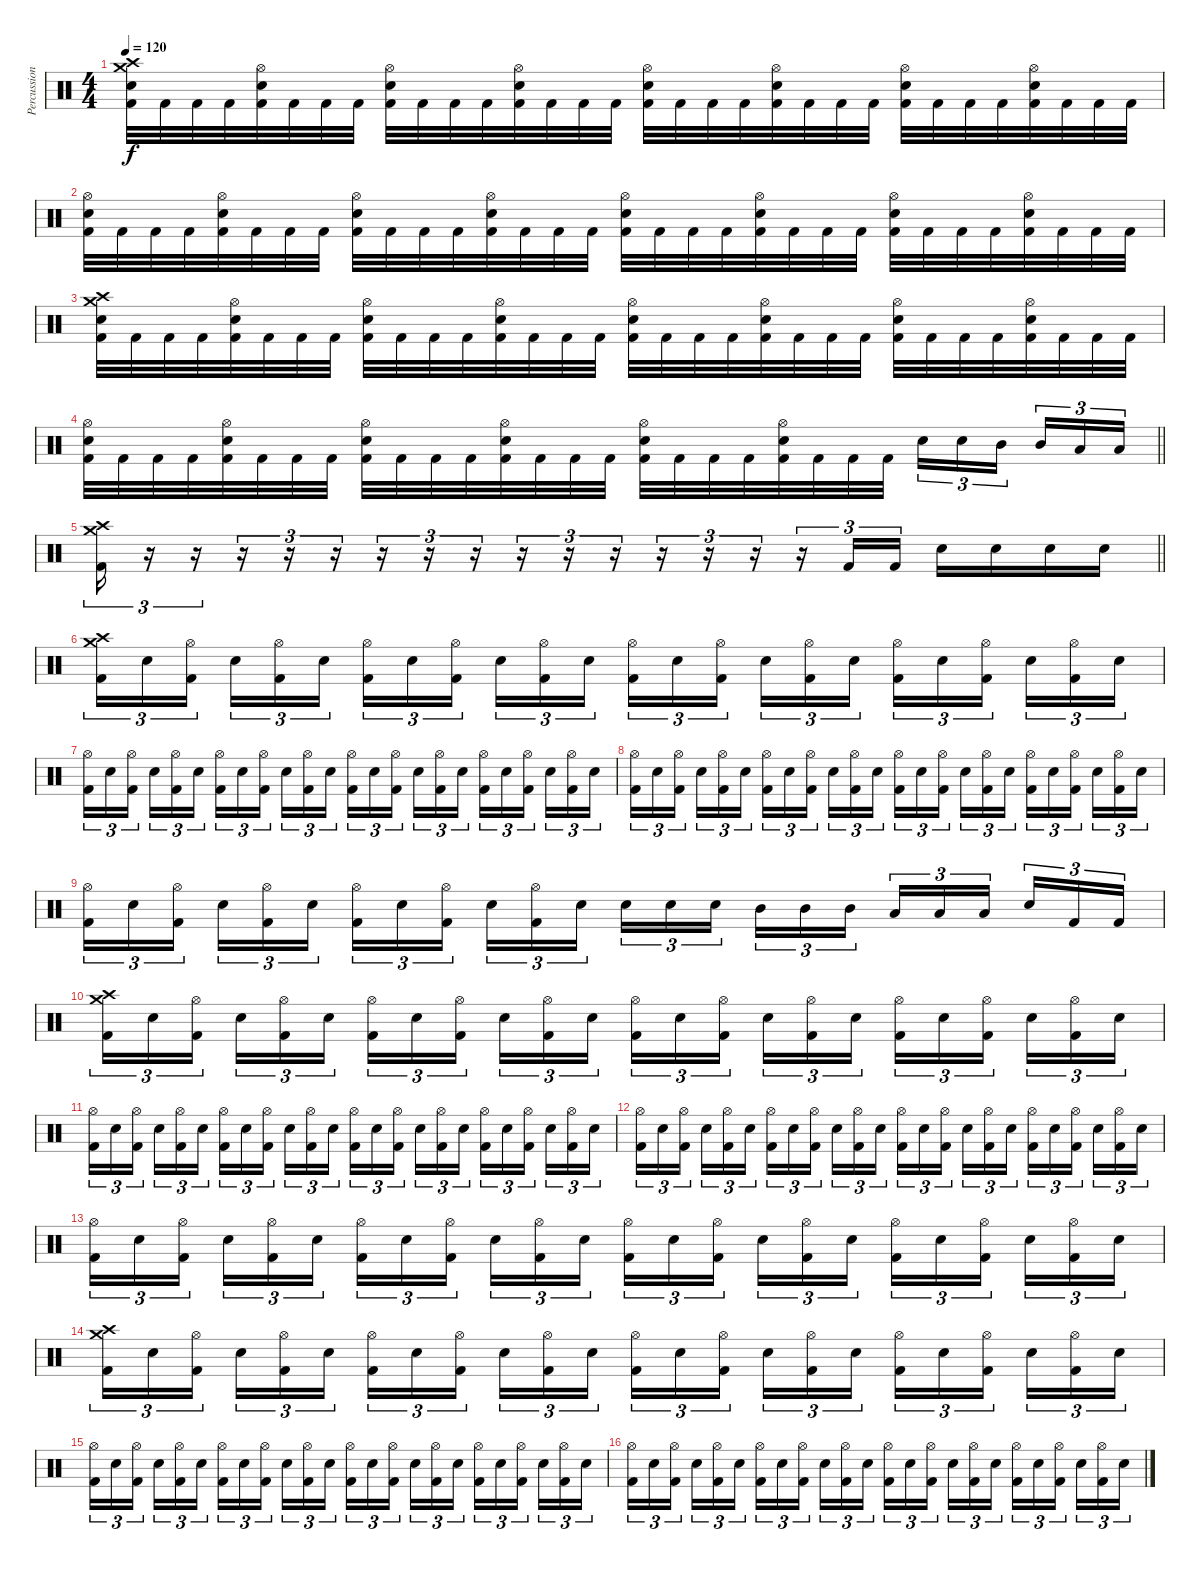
\track ("Percussion" "Percussion") {instrument percussion}
\staff {score}
\articulation defaults
\ts (4 4)
\tempo 120
\clef neutral
\ks c
("Crash medium (hit)" "Crash high (hit)" "Electric Snare (hit)" "Kick (hit) 2").32{dy f} "Kick (hit) 2".32 "Kick (hit) 2".32 "Kick (hit) 2".32 ("Hi-Hat (open)" "Electric Snare (hit)" "Kick (hit) 2").32 "Kick (hit) 2".32 "Kick (hit) 2".32 "Kick (hit) 2".32 ("Hi-Hat (open)" "Electric Snare (hit)" "Kick (hit) 2").32 "Kick (hit) 2".32 "Kick (hit) 2".32 "Kick (hit) 2".32 ("Hi-Hat (open)" "Electric Snare (hit)" "Kick (hit) 2").32 "Kick (hit) 2".32 "Kick (hit) 2".32 "Kick (hit) 2".32 ("Hi-Hat (open)" "Electric Snare (hit)" "Kick (hit) 2").32 "Kick (hit) 2".32 "Kick (hit) 2".32 "Kick (hit) 2".32 ("Hi-Hat (open)" "Electric Snare (hit)" "Kick (hit) 2").32 "Kick (hit) 2".32 "Kick (hit) 2".32 "Kick (hit) 2".32 ("Hi-Hat (open)" "Electric Snare (hit)" "Kick (hit) 2").32 "Kick (hit) 2".32 "Kick (hit) 2".32 "Kick (hit) 2".32 ("Hi-Hat (open)" "Electric Snare (hit)" "Kick (hit) 2").32 "Kick (hit) 2".32 "Kick (hit) 2".32 "Kick (hit) 2".32 |
("Hi-Hat (open)" "Electric Snare (hit)" "Kick (hit) 2").32 "Kick (hit) 2".32 "Kick (hit) 2".32 "Kick (hit) 2".32 ("Hi-Hat (open)" "Electric Snare (hit)" "Kick (hit) 2").32 "Kick (hit) 2".32 "Kick (hit) 2".32 "Kick (hit) 2".32 ("Hi-Hat (open)" "Electric Snare (hit)" "Kick (hit) 2").32 "Kick (hit) 2".32 "Kick (hit) 2".32 "Kick (hit) 2".32 ("Hi-Hat (open)" "Electric Snare (hit)" "Kick (hit) 2").32 "Kick (hit) 2".32 "Kick (hit) 2".32 "Kick (hit) 2".32 ("Hi-Hat (open)" "Electric Snare (hit)" "Kick (hit) 2").32 "Kick (hit) 2".32 "Kick (hit) 2".32 "Kick (hit) 2".32 ("Hi-Hat (open)" "Electric Snare (hit)" "Kick (hit) 2").32 "Kick (hit) 2".32 "Kick (hit) 2".32 "Kick (hit) 2".32 ("Hi-Hat (open)" "Electric Snare (hit)" "Kick (hit) 2").32 "Kick (hit) 2".32 "Kick (hit) 2".32 "Kick (hit) 2".32 ("Hi-Hat (open)" "Electric Snare (hit)" "Kick (hit) 2").32 "Kick (hit) 2".32 "Kick (hit) 2".32 "Kick (hit) 2".32 |
("Crash medium (hit)" "Crash high (hit)" "Electric Snare (hit)" "Kick (hit) 2").32 "Kick (hit) 2".32 "Kick (hit) 2".32 "Kick (hit) 2".32 ("Hi-Hat (open)" "Electric Snare (hit)" "Kick (hit) 2").32 "Kick (hit) 2".32 "Kick (hit) 2".32 "Kick (hit) 2".32 ("Hi-Hat (open)" "Electric Snare (hit)" "Kick (hit) 2").32 "Kick (hit) 2".32 "Kick (hit) 2".32 "Kick (hit) 2".32 ("Hi-Hat (open)" "Electric Snare (hit)" "Kick (hit) 2").32 "Kick (hit) 2".32 "Kick (hit) 2".32 "Kick (hit) 2".32 ("Hi-Hat (open)" "Electric Snare (hit)" "Kick (hit) 2").32 "Kick (hit) 2".32 "Kick (hit) 2".32 "Kick (hit) 2".32 ("Hi-Hat (open)" "Electric Snare (hit)" "Kick (hit) 2").32 "Kick (hit) 2".32 "Kick (hit) 2".32 "Kick (hit) 2".32 ("Hi-Hat (open)" "Electric Snare (hit)" "Kick (hit) 2").32 "Kick (hit) 2".32 "Kick (hit) 2".32 "Kick (hit) 2".32 ("Hi-Hat (open)" "Electric Snare (hit)" "Kick (hit) 2").32 "Kick (hit) 2".32 "Kick (hit) 2".32 "Kick (hit) 2".32 |
\barLineRight lightlight
("Hi-Hat (open)" "Electric Snare (hit)" "Kick (hit) 2").32 "Kick (hit) 2".32 "Kick (hit) 2".32 "Kick (hit) 2".32 ("Hi-Hat (open)" "Electric Snare (hit)" "Kick (hit) 2").32 "Kick (hit) 2".32 "Kick (hit) 2".32 "Kick (hit) 2".32 ("Hi-Hat (open)" "Electric Snare (hit)" "Kick (hit) 2").32 "Kick (hit) 2".32 "Kick (hit) 2".32 "Kick (hit) 2".32 ("Hi-Hat (open)" "Electric Snare (hit)" "Kick (hit) 2").32 "Kick (hit) 2".32 "Kick (hit) 2".32 "Kick (hit) 2".32 ("Hi-Hat (open)" "Electric Snare (hit)" "Kick (hit) 2").32 "Kick (hit) 2".32 "Kick (hit) 2".32 "Kick (hit) 2".32 ("Hi-Hat (open)" "Electric Snare (hit)" "Kick (hit) 2").32 "Kick (hit) 2".32 "Kick (hit) 2".32 "Kick (hit) 2".32 "Electric Snare (hit)".16{tu (3 2)} "Electric Snare (hit)".16{tu (3 2)} "Mid Tom (hit)".16{tu (3 2) beam splitsecondary} "Mid Tom (hit)".16{tu (3 2)} "Low Tom (hit)".16{tu (3 2)} "Low Tom (hit)".16{tu (3 2)} |
\barLineRight lightlight
("Crash medium (hit)" "Crash high (hit)" "Kick (hit) 2").16{tu (3 2)} r.16{tu (3 2)} r.16{tu (3 2)} r.16{tu (3 2)} r.16{tu (3 2)} r.16{tu (3 2)} r.16{tu (3 2)} r.16{tu (3 2)} r.16{tu (3 2)} r.16{tu (3 2)} r.16{tu (3 2)} r.16{tu (3 2)} r.16{tu (3 2)} r.16{tu (3 2)} r.16{tu (3 2)} r.16{tu (3 2)} "Kick (hit) 2".16{tu (3 2)} "Kick (hit) 2".16{tu (3 2)} "Electric Snare (hit)".16 "Electric Snare (hit)".16 "Electric Snare (hit)".16 "Electric Snare (hit)".16 |
("Crash medium (hit)" "Crash high (hit)" "Kick (hit) 2").16{tu (3 2)} "Electric Snare (hit)".16{tu (3 2)} ("Hi-Hat (open)" "Kick (hit) 2").16{tu (3 2) beam splitsecondary} "Electric Snare (hit)".16{tu (3 2)} ("Hi-Hat (open)" "Kick (hit) 2").16{tu (3 2)} "Electric Snare (hit)".16{tu (3 2)} ("Hi-Hat (open)" "Kick (hit) 2").16{tu (3 2)} "Electric Snare (hit)".16{tu (3 2)} ("Hi-Hat (open)" "Kick (hit) 2").16{tu (3 2) beam splitsecondary} "Electric Snare (hit)".16{tu (3 2)} ("Hi-Hat (open)" "Kick (hit) 2").16{tu (3 2)} "Electric Snare (hit)".16{tu (3 2)} ("Hi-Hat (open)" "Kick (hit) 2").16{tu (3 2)} "Electric Snare (hit)".16{tu (3 2)} ("Hi-Hat (open)" "Kick (hit) 2").16{tu (3 2) beam splitsecondary} "Electric Snare (hit)".16{tu (3 2)} ("Hi-Hat (open)" "Kick (hit) 2").16{tu (3 2)} "Electric Snare (hit)".16{tu (3 2)} ("Hi-Hat (open)" "Kick (hit) 2").16{tu (3 2)} "Electric Snare (hit)".16{tu (3 2)} ("Hi-Hat (open)" "Kick (hit) 2").16{tu (3 2) beam splitsecondary} "Electric Snare (hit)".16{tu (3 2)} ("Hi-Hat (open)" "Kick (hit) 2").16{tu (3 2)} "Electric Snare (hit)".16{tu (3 2)} |
("Hi-Hat (open)" "Kick (hit) 2").16{tu (3 2)} "Electric Snare (hit)".16{tu (3 2)} ("Hi-Hat (open)" "Kick (hit) 2").16{tu (3 2) beam splitsecondary} "Electric Snare (hit)".16{tu (3 2)} ("Hi-Hat (open)" "Kick (hit) 2").16{tu (3 2)} "Electric Snare (hit)".16{tu (3 2)} ("Hi-Hat (open)" "Kick (hit) 2").16{tu (3 2)} "Electric Snare (hit)".16{tu (3 2)} ("Hi-Hat (open)" "Kick (hit) 2").16{tu (3 2) beam splitsecondary} "Electric Snare (hit)".16{tu (3 2)} ("Hi-Hat (open)" "Kick (hit) 2").16{tu (3 2)} "Electric Snare (hit)".16{tu (3 2)} ("Hi-Hat (open)" "Kick (hit) 2").16{tu (3 2)} "Electric Snare (hit)".16{tu (3 2)} ("Hi-Hat (open)" "Kick (hit) 2").16{tu (3 2) beam splitsecondary} "Electric Snare (hit)".16{tu (3 2)} ("Hi-Hat (open)" "Kick (hit) 2").16{tu (3 2)} "Electric Snare (hit)".16{tu (3 2)} ("Hi-Hat (open)" "Kick (hit) 2").16{tu (3 2)} "Electric Snare (hit)".16{tu (3 2)} ("Hi-Hat (open)" "Kick (hit) 2").16{tu (3 2) beam splitsecondary} "Electric Snare (hit)".16{tu (3 2)} ("Hi-Hat (open)" "Kick (hit) 2").16{tu (3 2)} "Electric Snare (hit)".16{tu (3 2)} |
("Hi-Hat (open)" "Kick (hit) 2").16{tu (3 2)} "Electric Snare (hit)".16{tu (3 2)} ("Hi-Hat (open)" "Kick (hit) 2").16{tu (3 2) beam splitsecondary} "Electric Snare (hit)".16{tu (3 2)} ("Hi-Hat (open)" "Kick (hit) 2").16{tu (3 2)} "Electric Snare (hit)".16{tu (3 2)} ("Hi-Hat (open)" "Kick (hit) 2").16{tu (3 2)} "Electric Snare (hit)".16{tu (3 2)} ("Hi-Hat (open)" "Kick (hit) 2").16{tu (3 2) beam splitsecondary} "Electric Snare (hit)".16{tu (3 2)} ("Hi-Hat (open)" "Kick (hit) 2").16{tu (3 2)} "Electric Snare (hit)".16{tu (3 2)} ("Hi-Hat (open)" "Kick (hit) 2").16{tu (3 2)} "Electric Snare (hit)".16{tu (3 2)} ("Hi-Hat (open)" "Kick (hit) 2").16{tu (3 2) beam splitsecondary} "Electric Snare (hit)".16{tu (3 2)} ("Hi-Hat (open)" "Kick (hit) 2").16{tu (3 2)} "Electric Snare (hit)".16{tu (3 2)} ("Hi-Hat (open)" "Kick (hit) 2").16{tu (3 2)} "Electric Snare (hit)".16{tu (3 2)} ("Hi-Hat (open)" "Kick (hit) 2").16{tu (3 2) beam splitsecondary} "Electric Snare (hit)".16{tu (3 2)} ("Hi-Hat (open)" "Kick (hit) 2").16{tu (3 2)} "Electric Snare (hit)".16{tu (3 2)} |
("Hi-Hat (open)" "Kick (hit) 2").16{tu (3 2)} "Electric Snare (hit)".16{tu (3 2)} ("Hi-Hat (open)" "Kick (hit) 2").16{tu (3 2) beam splitsecondary} "Electric Snare (hit)".16{tu (3 2)} ("Hi-Hat (open)" "Kick (hit) 2").16{tu (3 2)} "Electric Snare (hit)".16{tu (3 2)} ("Hi-Hat (open)" "Kick (hit) 2").16{tu (3 2)} "Electric Snare (hit)".16{tu (3 2)} ("Hi-Hat (open)" "Kick (hit) 2").16{tu (3 2) beam splitsecondary} "Electric Snare (hit)".16{tu (3 2)} ("Hi-Hat (open)" "Kick (hit) 2").16{tu (3 2)} "Electric Snare (hit)".16{tu (3 2)} "Electric Snare (hit)".16{tu (3 2)} "Electric Snare (hit)".16{tu (3 2)} "Electric Snare (hit)".16{tu (3 2) beam splitsecondary} "Mid Tom (hit)".16{tu (3 2)} "Mid Tom (hit)".16{tu (3 2)} "Mid Tom (hit)".16{tu (3 2)} "Low Tom (hit)".16{tu (3 2)} "Low Tom (hit)".16{tu (3 2)} "Low Tom (hit)".16{tu (3 2) beam splitsecondary} "Electric Snare (hit)".16{tu (3 2)} "Kick (hit) 2".16{tu (3 2)} "Kick (hit) 2".16{tu (3 2)} |
("Crash medium (hit)" "Crash high (hit)" "Kick (hit) 2").16{tu (3 2)} "Electric Snare (hit)".16{tu (3 2)} ("Hi-Hat (open)" "Kick (hit) 2").16{tu (3 2) beam splitsecondary} "Electric Snare (hit)".16{tu (3 2)} ("Hi-Hat (open)" "Kick (hit) 2").16{tu (3 2)} "Electric Snare (hit)".16{tu (3 2)} ("Hi-Hat (open)" "Kick (hit) 2").16{tu (3 2)} "Electric Snare (hit)".16{tu (3 2)} ("Hi-Hat (open)" "Kick (hit) 2").16{tu (3 2) beam splitsecondary} "Electric Snare (hit)".16{tu (3 2)} ("Hi-Hat (open)" "Kick (hit) 2").16{tu (3 2)} "Electric Snare (hit)".16{tu (3 2)} ("Hi-Hat (open)" "Kick (hit) 2").16{tu (3 2)} "Electric Snare (hit)".16{tu (3 2)} ("Hi-Hat (open)" "Kick (hit) 2").16{tu (3 2) beam splitsecondary} "Electric Snare (hit)".16{tu (3 2)} ("Hi-Hat (open)" "Kick (hit) 2").16{tu (3 2)} "Electric Snare (hit)".16{tu (3 2)} ("Hi-Hat (open)" "Kick (hit) 2").16{tu (3 2)} "Electric Snare (hit)".16{tu (3 2)} ("Hi-Hat (open)" "Kick (hit) 2").16{tu (3 2) beam splitsecondary} "Electric Snare (hit)".16{tu (3 2)} ("Hi-Hat (open)" "Kick (hit) 2").16{tu (3 2)} "Electric Snare (hit)".16{tu (3 2)} |
("Hi-Hat (open)" "Kick (hit) 2").16{tu (3 2)} "Electric Snare (hit)".16{tu (3 2)} ("Hi-Hat (open)" "Kick (hit) 2").16{tu (3 2) beam splitsecondary} "Electric Snare (hit)".16{tu (3 2)} ("Hi-Hat (open)" "Kick (hit) 2").16{tu (3 2)} "Electric Snare (hit)".16{tu (3 2)} ("Hi-Hat (open)" "Kick (hit) 2").16{tu (3 2)} "Electric Snare (hit)".16{tu (3 2)} ("Hi-Hat (open)" "Kick (hit) 2").16{tu (3 2) beam splitsecondary} "Electric Snare (hit)".16{tu (3 2)} ("Hi-Hat (open)" "Kick (hit) 2").16{tu (3 2)} "Electric Snare (hit)".16{tu (3 2)} ("Hi-Hat (open)" "Kick (hit) 2").16{tu (3 2)} "Electric Snare (hit)".16{tu (3 2)} ("Hi-Hat (open)" "Kick (hit) 2").16{tu (3 2) beam splitsecondary} "Electric Snare (hit)".16{tu (3 2)} ("Hi-Hat (open)" "Kick (hit) 2").16{tu (3 2)} "Electric Snare (hit)".16{tu (3 2)} ("Hi-Hat (open)" "Kick (hit) 2").16{tu (3 2)} "Electric Snare (hit)".16{tu (3 2)} ("Hi-Hat (open)" "Kick (hit) 2").16{tu (3 2) beam splitsecondary} "Electric Snare (hit)".16{tu (3 2)} ("Hi-Hat (open)" "Kick (hit) 2").16{tu (3 2)} "Electric Snare (hit)".16{tu (3 2)} |
("Hi-Hat (open)" "Kick (hit) 2").16{tu (3 2)} "Electric Snare (hit)".16{tu (3 2)} ("Hi-Hat (open)" "Kick (hit) 2").16{tu (3 2) beam splitsecondary} "Electric Snare (hit)".16{tu (3 2)} ("Hi-Hat (open)" "Kick (hit) 2").16{tu (3 2)} "Electric Snare (hit)".16{tu (3 2)} ("Hi-Hat (open)" "Kick (hit) 2").16{tu (3 2)} "Electric Snare (hit)".16{tu (3 2)} ("Hi-Hat (open)" "Kick (hit) 2").16{tu (3 2) beam splitsecondary} "Electric Snare (hit)".16{tu (3 2)} ("Hi-Hat (open)" "Kick (hit) 2").16{tu (3 2)} "Electric Snare (hit)".16{tu (3 2)} ("Hi-Hat (open)" "Kick (hit) 2").16{tu (3 2)} "Electric Snare (hit)".16{tu (3 2)} ("Hi-Hat (open)" "Kick (hit) 2").16{tu (3 2) beam splitsecondary} "Electric Snare (hit)".16{tu (3 2)} ("Hi-Hat (open)" "Kick (hit) 2").16{tu (3 2)} "Electric Snare (hit)".16{tu (3 2)} ("Hi-Hat (open)" "Kick (hit) 2").16{tu (3 2)} "Electric Snare (hit)".16{tu (3 2)} ("Hi-Hat (open)" "Kick (hit) 2").16{tu (3 2) beam splitsecondary} "Electric Snare (hit)".16{tu (3 2)} ("Hi-Hat (open)" "Kick (hit) 2").16{tu (3 2)} "Electric Snare (hit)".16{tu (3 2)} |
("Hi-Hat (open)" "Kick (hit) 2").16{tu (3 2)} "Electric Snare (hit)".16{tu (3 2)} ("Hi-Hat (open)" "Kick (hit) 2").16{tu (3 2) beam splitsecondary} "Electric Snare (hit)".16{tu (3 2)} ("Hi-Hat (open)" "Kick (hit) 2").16{tu (3 2)} "Electric Snare (hit)".16{tu (3 2)} ("Hi-Hat (open)" "Kick (hit) 2").16{tu (3 2)} "Electric Snare (hit)".16{tu (3 2)} ("Hi-Hat (open)" "Kick (hit) 2").16{tu (3 2) beam splitsecondary} "Electric Snare (hit)".16{tu (3 2)} ("Hi-Hat (open)" "Kick (hit) 2").16{tu (3 2)} "Electric Snare (hit)".16{tu (3 2)} ("Hi-Hat (open)" "Kick (hit) 2").16{tu (3 2)} "Electric Snare (hit)".16{tu (3 2)} ("Hi-Hat (open)" "Kick (hit) 2").16{tu (3 2) beam splitsecondary} "Electric Snare (hit)".16{tu (3 2)} ("Hi-Hat (open)" "Kick (hit) 2").16{tu (3 2)} "Electric Snare (hit)".16{tu (3 2)} ("Hi-Hat (open)" "Kick (hit) 2").16{tu (3 2)} "Electric Snare (hit)".16{tu (3 2)} ("Hi-Hat (open)" "Kick (hit) 2").16{tu (3 2) beam splitsecondary} "Electric Snare (hit)".16{tu (3 2)} ("Hi-Hat (open)" "Kick (hit) 2").16{tu (3 2)} "Electric Snare (hit)".16{tu (3 2)} |
("Crash medium (hit)" "Crash high (hit)" "Kick (hit) 2").16{tu (3 2)} "Electric Snare (hit)".16{tu (3 2)} ("Hi-Hat (open)" "Kick (hit) 2").16{tu (3 2) beam splitsecondary} "Electric Snare (hit)".16{tu (3 2)} ("Hi-Hat (open)" "Kick (hit) 2").16{tu (3 2)} "Electric Snare (hit)".16{tu (3 2)} ("Hi-Hat (open)" "Kick (hit) 2").16{tu (3 2)} "Electric Snare (hit)".16{tu (3 2)} ("Hi-Hat (open)" "Kick (hit) 2").16{tu (3 2) beam splitsecondary} "Electric Snare (hit)".16{tu (3 2)} ("Hi-Hat (open)" "Kick (hit) 2").16{tu (3 2)} "Electric Snare (hit)".16{tu (3 2)} ("Hi-Hat (open)" "Kick (hit) 2").16{tu (3 2)} "Electric Snare (hit)".16{tu (3 2)} ("Hi-Hat (open)" "Kick (hit) 2").16{tu (3 2) beam splitsecondary} "Electric Snare (hit)".16{tu (3 2)} ("Hi-Hat (open)" "Kick (hit) 2").16{tu (3 2)} "Electric Snare (hit)".16{tu (3 2)} ("Hi-Hat (open)" "Kick (hit) 2").16{tu (3 2)} "Electric Snare (hit)".16{tu (3 2)} ("Hi-Hat (open)" "Kick (hit) 2").16{tu (3 2) beam splitsecondary} "Electric Snare (hit)".16{tu (3 2)} ("Hi-Hat (open)" "Kick (hit) 2").16{tu (3 2)} "Electric Snare (hit)".16{tu (3 2)} |
("Hi-Hat (open)" "Kick (hit) 2").16{tu (3 2)} "Electric Snare (hit)".16{tu (3 2)} ("Hi-Hat (open)" "Kick (hit) 2").16{tu (3 2) beam splitsecondary} "Electric Snare (hit)".16{tu (3 2)} ("Hi-Hat (open)" "Kick (hit) 2").16{tu (3 2)} "Electric Snare (hit)".16{tu (3 2)} ("Hi-Hat (open)" "Kick (hit) 2").16{tu (3 2)} "Electric Snare (hit)".16{tu (3 2)} ("Hi-Hat (open)" "Kick (hit) 2").16{tu (3 2) beam splitsecondary} "Electric Snare (hit)".16{tu (3 2)} ("Hi-Hat (open)" "Kick (hit) 2").16{tu (3 2)} "Electric Snare (hit)".16{tu (3 2)} ("Hi-Hat (open)" "Kick (hit) 2").16{tu (3 2)} "Electric Snare (hit)".16{tu (3 2)} ("Hi-Hat (open)" "Kick (hit) 2").16{tu (3 2) beam splitsecondary} "Electric Snare (hit)".16{tu (3 2)} ("Hi-Hat (open)" "Kick (hit) 2").16{tu (3 2)} "Electric Snare (hit)".16{tu (3 2)} ("Hi-Hat (open)" "Kick (hit) 2").16{tu (3 2)} "Electric Snare (hit)".16{tu (3 2)} ("Hi-Hat (open)" "Kick (hit) 2").16{tu (3 2) beam splitsecondary} "Electric Snare (hit)".16{tu (3 2)} ("Hi-Hat (open)" "Kick (hit) 2").16{tu (3 2)} "Electric Snare (hit)".16{tu (3 2)} |
("Hi-Hat (open)" "Kick (hit) 2").16{tu (3 2)} "Electric Snare (hit)".16{tu (3 2)} ("Hi-Hat (open)" "Kick (hit) 2").16{tu (3 2) beam splitsecondary} "Electric Snare (hit)".16{tu (3 2)} ("Hi-Hat (open)" "Kick (hit) 2").16{tu (3 2)} "Electric Snare (hit)".16{tu (3 2)} ("Hi-Hat (open)" "Kick (hit) 2").16{tu (3 2)} "Electric Snare (hit)".16{tu (3 2)} ("Hi-Hat (open)" "Kick (hit) 2").16{tu (3 2) beam splitsecondary} "Electric Snare (hit)".16{tu (3 2)} ("Hi-Hat (open)" "Kick (hit) 2").16{tu (3 2)} "Electric Snare (hit)".16{tu (3 2)} ("Hi-Hat (open)" "Kick (hit) 2").16{tu (3 2)} "Electric Snare (hit)".16{tu (3 2)} ("Hi-Hat (open)" "Kick (hit) 2").16{tu (3 2) beam splitsecondary} "Electric Snare (hit)".16{tu (3 2)} ("Hi-Hat (open)" "Kick (hit) 2").16{tu (3 2)} "Electric Snare (hit)".16{tu (3 2)} ("Hi-Hat (open)" "Kick (hit) 2").16{tu (3 2)} "Electric Snare (hit)".16{tu (3 2)} ("Hi-Hat (open)" "Kick (hit) 2").16{tu (3 2) beam splitsecondary} "Electric Snare (hit)".16{tu (3 2)} ("Hi-Hat (open)" "Kick (hit) 2").16{tu (3 2)} "Electric Snare (hit)".16{tu (3 2)}
